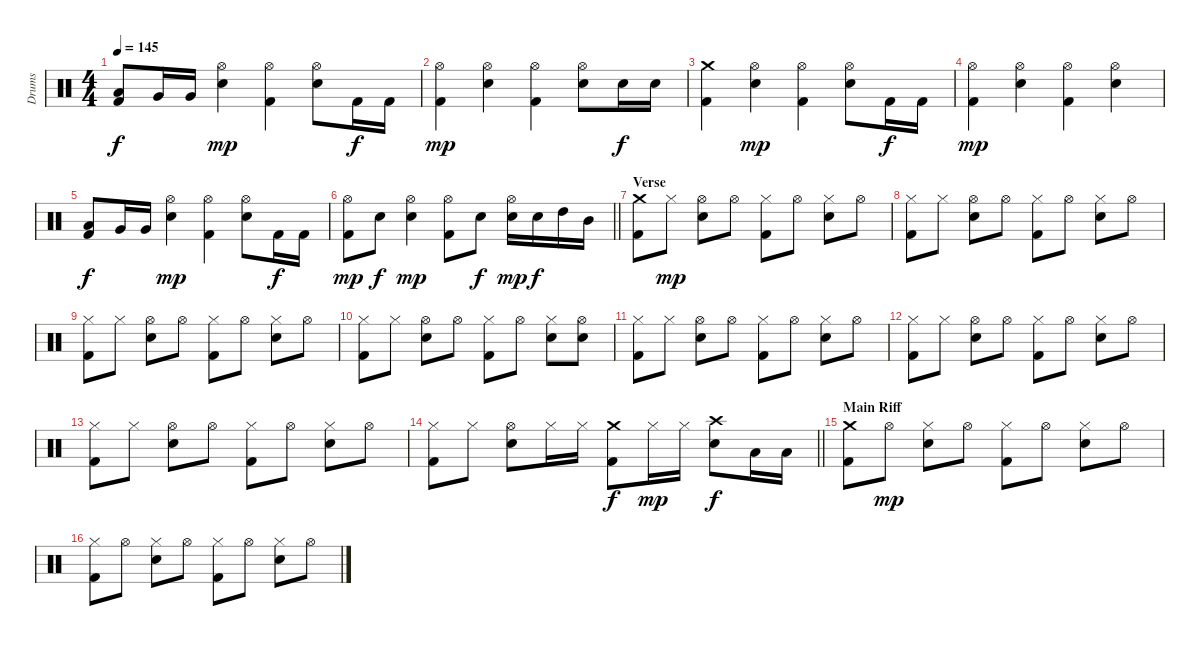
\track ("Drums" "Drums") {instrument percussion}
\staff {score}
\articulation defaults
\ts (4 4)
\tempo 145
\clef neutral
\ks c
("Low Floor Tom (hit)" "Kick (hit) 2").8{dy f} "Very Low Tom (hit)".16 "Very Low Tom (hit)".16 ("Hi-Hat (open)" "Snare (hit) 2").4{dy mp} ("Hi-Hat (open)" "Kick (hit) 2").4 ("Hi-Hat (open)" "Snare (hit) 2").8 "Kick (hit) 2".16{dy f} "Kick (hit) 2".16 |
("Hi-Hat (open)" "Kick (hit) 2").4{dy mp} ("Hi-Hat (open)" "Snare (hit) 2").4 ("Hi-Hat (open)" "Kick (hit) 2").4 ("Hi-Hat (open)" "Snare (hit) 2").8 "Snare (hit) 2".16{dy f} "Snare (hit) 2".16 |
("Crash medium (hit)" "Kick (hit) 2").4 ("Hi-Hat (open)" "Snare (hit) 2").4{dy mp} ("Hi-Hat (open)" "Kick (hit) 2").4 ("Hi-Hat (open)" "Snare (hit) 2").8 "Kick (hit) 2".16{dy f} "Kick (hit) 2".16 |
("Hi-Hat (open)" "Kick (hit) 2").4{dy mp} ("Hi-Hat (open)" "Snare (hit) 2").4 ("Hi-Hat (open)" "Kick (hit) 2").4 ("Hi-Hat (open)" "Snare (hit) 2").4 |
("Low Floor Tom (hit)" "Kick (hit) 2").8{dy f} "Very Low Tom (hit)".16 "Very Low Tom (hit)".16 ("Hi-Hat (open)" "Snare (hit) 2").4{dy mp} ("Hi-Hat (open)" "Kick (hit) 2").4 ("Hi-Hat (open)" "Snare (hit) 2").8 "Kick (hit) 2".16{dy f} "Kick (hit) 2".16 |
\barLineRight lightlight
("Hi-Hat (open)" "Kick (hit) 2").8{dy mp} "Snare (hit) 2".8{dy f} ("Hi-Hat (open)" "Snare (hit) 2").4{dy mp} ("Hi-Hat (open)" "Kick (hit) 2").8 "Snare (hit) 2".8{dy f} ("Hi-Hat (open)" "Snare (hit) 2").16{dy mp} "Snare (hit) 2".16{dy f} "High Tom (hit)".16 "Mid Tom (hit)".16 |
\section ("" "Verse")
("Crash medium (hit)" "Kick (hit) 2").8 "Hi-Hat (closed)".8{dy mp} ("Hi-Hat (open)" "Snare (hit) 2").8 "Hi-Hat (open)".8 ("Hi-Hat (closed)" "Kick (hit) 2").8 "Hi-Hat (open)".8 ("Hi-Hat (closed)" "Snare (hit) 2").8 "Hi-Hat (open)".8 |
("Hi-Hat (closed)" "Kick (hit) 2").8 "Hi-Hat (closed)".8 ("Hi-Hat (open)" "Snare (hit) 2").8 "Hi-Hat (open)".8 ("Hi-Hat (closed)" "Kick (hit) 2").8 "Hi-Hat (open)".8 ("Hi-Hat (closed)" "Snare (hit) 2").8 "Hi-Hat (open)".8 |
("Hi-Hat (closed)" "Kick (hit) 2").8 "Hi-Hat (closed)".8 ("Hi-Hat (open)" "Snare (hit) 2").8 "Hi-Hat (open)".8 ("Hi-Hat (closed)" "Kick (hit) 2").8 "Hi-Hat (open)".8 ("Hi-Hat (closed)" "Snare (hit) 2").8 "Hi-Hat (open)".8 |
("Hi-Hat (closed)" "Kick (hit) 2").8 "Hi-Hat (closed)".8 ("Hi-Hat (open)" "Snare (hit) 2").8 "Hi-Hat (open)".8 ("Hi-Hat (closed)" "Kick (hit) 2").8 "Hi-Hat (open)".8 ("Hi-Hat (closed)" "Snare (hit) 2").8 ("Hi-Hat (open)" "Snare (hit) 2").8 |
("Hi-Hat (closed)" "Kick (hit) 2").8 "Hi-Hat (closed)".8 ("Hi-Hat (open)" "Snare (hit) 2").8 "Hi-Hat (open)".8 ("Hi-Hat (closed)" "Kick (hit) 2").8 "Hi-Hat (open)".8 ("Hi-Hat (closed)" "Snare (hit) 2").8 "Hi-Hat (open)".8 |
("Hi-Hat (closed)" "Kick (hit) 2").8 "Hi-Hat (closed)".8 ("Hi-Hat (open)" "Snare (hit) 2").8 "Hi-Hat (open)".8 ("Hi-Hat (closed)" "Kick (hit) 2").8 "Hi-Hat (open)".8 ("Hi-Hat (closed)" "Snare (hit) 2").8 "Hi-Hat (open)".8 |
("Hi-Hat (closed)" "Kick (hit) 2").8 "Hi-Hat (closed)".8 ("Hi-Hat (open)" "Snare (hit) 2").8 "Hi-Hat (open)".8 ("Hi-Hat (closed)" "Kick (hit) 2").8 "Hi-Hat (open)".8 ("Hi-Hat (closed)" "Snare (hit) 2").8 "Hi-Hat (open)".8 |
\barLineRight lightlight
("Hi-Hat (closed)" "Kick (hit) 2").8 "Hi-Hat (closed)".8 ("Hi-Hat (open)" "Snare (hit) 2").8 "Hi-Hat (closed)".16 "Hi-Hat (closed)".16 ("Crash medium (hit)" "Kick (hit) 2").8{dy f} "Hi-Hat (closed)".16{dy mp} "Hi-Hat (closed)".16 ("Crash high (hit)" "Snare (hit) 2").8{dy f} "Low Floor Tom (hit)".16 "Low Floor Tom (hit)".16 |
\section ("" "Main Riff")
("Crash medium (hit)" "Kick (hit) 2").8 "Hi-Hat (open)".8{dy mp} ("Hi-Hat (closed)" "Snare (hit) 2").8 "Hi-Hat (open)".8 ("Hi-Hat (closed)" "Kick (hit) 2").8 "Hi-Hat (open)".8 ("Hi-Hat (closed)" "Snare (hit) 2").8 "Hi-Hat (open)".8 |
("Hi-Hat (closed)" "Kick (hit) 2").8 "Hi-Hat (open)".8 ("Hi-Hat (closed)" "Snare (hit) 2").8 "Hi-Hat (open)".8 ("Hi-Hat (closed)" "Kick (hit) 2").8 "Hi-Hat (open)".8 ("Hi-Hat (closed)" "Snare (hit) 2").8 "Hi-Hat (open)".8
